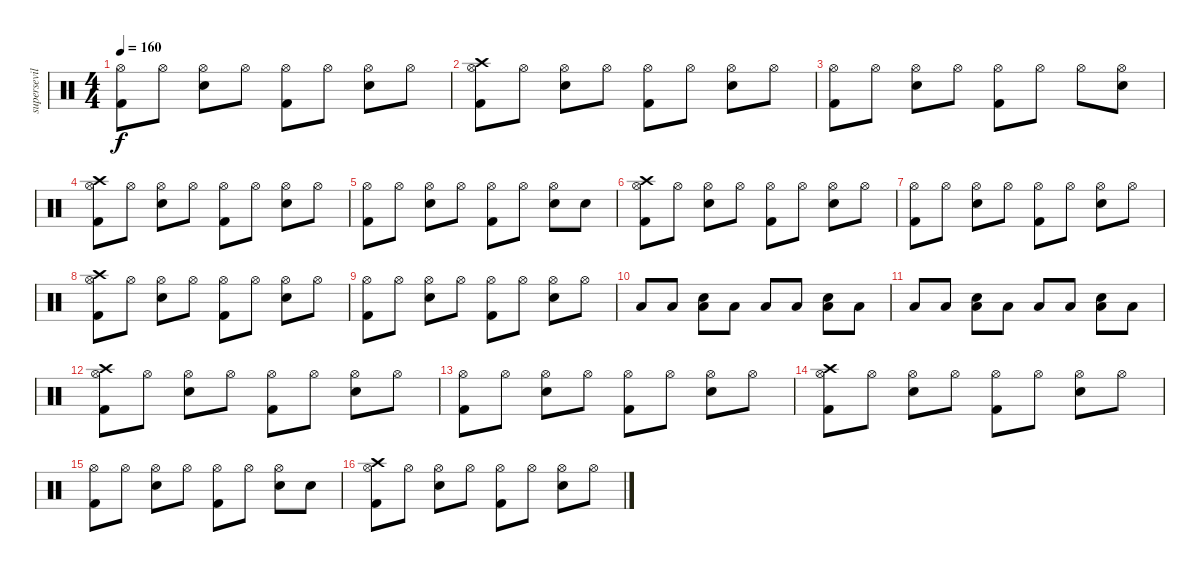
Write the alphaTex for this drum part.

\track ("supersevilla" "supersevil") {instrument percussion}
\staff {score}
\articulation defaults
\ts (4 4)
\tempo 160
\clef neutral
\ks c
("Hi-Hat (open)" "Kick (hit) 2").8{dy f} "Hi-Hat (open)".8 ("Hi-Hat (open)" "Electric Snare (hit)").8 "Hi-Hat (open)".8 ("Hi-Hat (open)" "Kick (hit) 2").8 "Hi-Hat (open)".8 ("Hi-Hat (open)" "Electric Snare (hit)").8 "Hi-Hat (open)".8 |
("Hi-Hat (open)" "Kick (hit) 2" "Crash high (hit)").8 "Hi-Hat (open)".8 ("Hi-Hat (open)" "Electric Snare (hit)").8 "Hi-Hat (open)".8 ("Hi-Hat (open)" "Kick (hit) 2").8 "Hi-Hat (open)".8 ("Hi-Hat (open)" "Electric Snare (hit)").8 "Hi-Hat (open)".8 |
("Hi-Hat (open)" "Kick (hit) 2").8 "Hi-Hat (open)".8 ("Hi-Hat (open)" "Electric Snare (hit)").8 "Hi-Hat (open)".8 ("Hi-Hat (open)" "Kick (hit) 2").8 "Hi-Hat (open)".8 "Hi-Hat (open)".8 ("Hi-Hat (open)" "Electric Snare (hit)").8 |
("Hi-Hat (open)" "Kick (hit) 2" "Crash high (hit)").8 "Hi-Hat (open)".8 ("Hi-Hat (open)" "Electric Snare (hit)").8 "Hi-Hat (open)".8 ("Hi-Hat (open)" "Kick (hit) 2").8 "Hi-Hat (open)".8 ("Hi-Hat (open)" "Electric Snare (hit)").8 "Hi-Hat (open)".8 |
("Hi-Hat (open)" "Kick (hit) 2").8 "Hi-Hat (open)".8 ("Hi-Hat (open)" "Electric Snare (hit)").8 "Hi-Hat (open)".8 ("Hi-Hat (open)" "Kick (hit) 2").8 "Hi-Hat (open)".8 ("Hi-Hat (open)" "Electric Snare (hit)").8 "Electric Snare (hit)".8 |
("Hi-Hat (open)" "Kick (hit) 2" "Crash high (hit)").8 "Hi-Hat (open)".8 ("Hi-Hat (open)" "Electric Snare (hit)").8 "Hi-Hat (open)".8 ("Hi-Hat (open)" "Kick (hit) 2").8 "Hi-Hat (open)".8 ("Hi-Hat (open)" "Electric Snare (hit)").8 "Hi-Hat (open)".8 |
("Hi-Hat (open)" "Kick (hit) 2").8 "Hi-Hat (open)".8 ("Hi-Hat (open)" "Electric Snare (hit)").8 "Hi-Hat (open)".8 ("Hi-Hat (open)" "Kick (hit) 2").8 "Hi-Hat (open)".8 ("Hi-Hat (open)" "Electric Snare (hit)").8 "Hi-Hat (open)".8 |
("Hi-Hat (open)" "Kick (hit) 2" "Crash high (hit)").8 "Hi-Hat (open)".8 ("Hi-Hat (open)" "Electric Snare (hit)").8 "Hi-Hat (open)".8 ("Hi-Hat (open)" "Kick (hit) 2").8 "Hi-Hat (open)".8 ("Hi-Hat (open)" "Electric Snare (hit)").8 "Hi-Hat (open)".8 |
("Hi-Hat (open)" "Kick (hit) 2").8 "Hi-Hat (open)".8 ("Hi-Hat (open)" "Electric Snare (hit)").8 "Hi-Hat (open)".8 ("Hi-Hat (open)" "Kick (hit) 2").8 "Hi-Hat (open)".8 ("Hi-Hat (open)" "Electric Snare (hit)").8 "Hi-Hat (open)".8 |
"Low Floor Tom (hit)".8 "Low Floor Tom (hit)".8 ("Low Floor Tom (hit)" "Electric Snare (hit)").8 "Low Floor Tom (hit)".8 "Low Floor Tom (hit)".8 "Low Floor Tom (hit)".8 ("Low Floor Tom (hit)" "Electric Snare (hit)").8 "Low Floor Tom (hit)".8 |
"Low Floor Tom (hit)".8 "Low Floor Tom (hit)".8 ("Low Floor Tom (hit)" "Electric Snare (hit)").8 "Low Floor Tom (hit)".8 "Low Floor Tom (hit)".8 "Low Floor Tom (hit)".8 ("Low Floor Tom (hit)" "Electric Snare (hit)").8 "Low Floor Tom (hit)".8 |
("Hi-Hat (open)" "Kick (hit) 2" "Crash high (hit)").8 "Hi-Hat (open)".8 ("Hi-Hat (open)" "Electric Snare (hit)").8 "Hi-Hat (open)".8 ("Hi-Hat (open)" "Kick (hit) 2").8 "Hi-Hat (open)".8 ("Hi-Hat (open)" "Electric Snare (hit)").8 "Hi-Hat (open)".8 |
("Hi-Hat (open)" "Kick (hit) 2").8 "Hi-Hat (open)".8 ("Hi-Hat (open)" "Electric Snare (hit)").8 "Hi-Hat (open)".8 ("Hi-Hat (open)" "Kick (hit) 2").8 "Hi-Hat (open)".8 ("Hi-Hat (open)" "Electric Snare (hit)").8 "Hi-Hat (open)".8 |
("Hi-Hat (open)" "Kick (hit) 2" "Crash high (hit)").8 "Hi-Hat (open)".8 ("Hi-Hat (open)" "Electric Snare (hit)").8 "Hi-Hat (open)".8 ("Hi-Hat (open)" "Kick (hit) 2").8 "Hi-Hat (open)".8 ("Hi-Hat (open)" "Electric Snare (hit)").8 "Hi-Hat (open)".8 |
("Hi-Hat (open)" "Kick (hit) 2").8 "Hi-Hat (open)".8 ("Hi-Hat (open)" "Electric Snare (hit)").8 "Hi-Hat (open)".8 ("Hi-Hat (open)" "Kick (hit) 2").8 "Hi-Hat (open)".8 ("Hi-Hat (open)" "Electric Snare (hit)").8 "Electric Snare (hit)".8 |
("Hi-Hat (open)" "Kick (hit) 2" "Crash high (hit)").8 "Hi-Hat (open)".8 ("Hi-Hat (open)" "Electric Snare (hit)").8 "Hi-Hat (open)".8 ("Hi-Hat (open)" "Kick (hit) 2").8 "Hi-Hat (open)".8 ("Hi-Hat (open)" "Electric Snare (hit)").8 "Hi-Hat (open)".8
